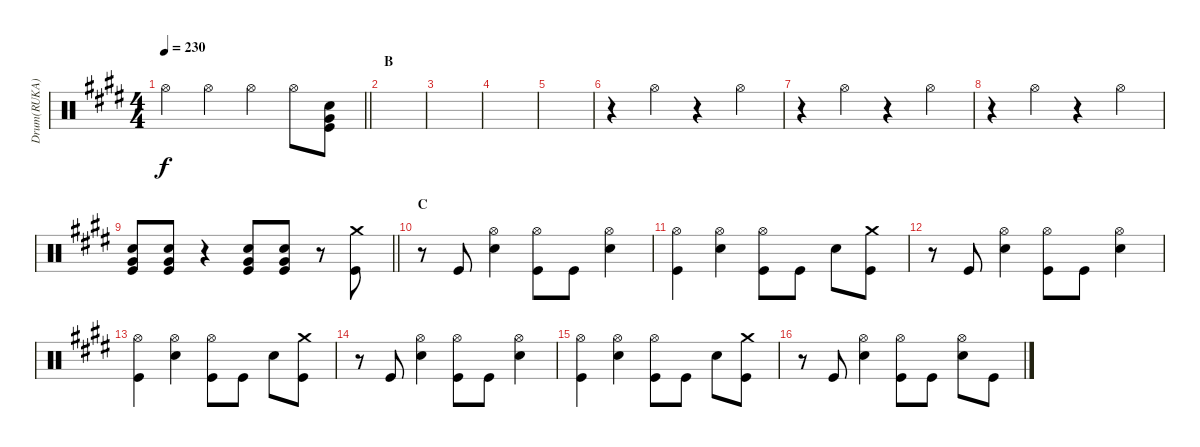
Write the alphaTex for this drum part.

\track ("Drum(RUKA)" "Drum(RUKA)") {instrument percussion}
\staff {score}
\articulation defaults
\ts (4 4)
\tempo 230
\clef neutral
\barLineRight lightlight
\ks e "Hi-Hat (open)".4{dy f} "Hi-Hat (open)".4 "Hi-Hat (open)".4 "Hi-Hat (open)".8
("Electric Snare (hit)" "Very Low Tom (hit)" "Kick (hit)").8 |
\section ("" "B")
|
|
|
|
r.4 "Hi-Hat (open)".4 r.4 "Hi-Hat (open)".4 |
r.4 "Hi-Hat (open)".4 r.4 "Hi-Hat (open)".4 |
r.4 "Hi-Hat (open)".4 r.4 "Hi-Hat (open)".4 |
\barLineRight lightlight
("Electric Snare (hit)" "Very Low Tom (hit)" "Kick (hit)").8 ("Electric Snare (hit)" "Very Low Tom (hit)" "Kick (hit)").8 r.4 ("Electric Snare (hit)" "Very Low Tom (hit)" "Kick (hit)").8 ("Electric Snare (hit)" "Very Low Tom (hit)" "Kick (hit)").8 r.8 ("Crash medium (hit)" "Kick (hit)").8 |
\section ("" "C")
r.8 "Kick (hit)".8 ("Hi-Hat (open)" "Electric Snare (hit)").4 ("Hi-Hat (open)" "Kick (hit)").8 "Kick (hit)".8 ("Hi-Hat (open)" "Electric Snare (hit)").4 |
("Hi-Hat (open)" "Kick (hit)").4 ("Hi-Hat (open)" "Electric Snare (hit)").4 ("Hi-Hat (open)" "Kick (hit)").8 "Kick (hit)".8 "Electric Snare (hit)".8 ("Crash medium (hit)" "Kick (hit)").8 |
r.8 "Kick (hit)".8 ("Hi-Hat (open)" "Electric Snare (hit)").4 ("Hi-Hat (open)" "Kick (hit)").8 "Kick (hit)".8 ("Hi-Hat (open)" "Electric Snare (hit)").4 |
("Hi-Hat (open)" "Kick (hit)").4 ("Hi-Hat (open)" "Electric Snare (hit)").4 ("Hi-Hat (open)" "Kick (hit)").8 "Kick (hit)".8 "Electric Snare (hit)".8 ("Crash medium (hit)" "Kick (hit)").8 |
r.8 "Kick (hit)".8 ("Hi-Hat (open)" "Electric Snare (hit)").4 ("Hi-Hat (open)" "Kick (hit)").8 "Kick (hit)".8 ("Hi-Hat (open)" "Electric Snare (hit)").4 |
("Hi-Hat (open)" "Kick (hit)").4 ("Hi-Hat (open)" "Electric Snare (hit)").4 ("Hi-Hat (open)" "Kick (hit)").8 "Kick (hit)".8 "Electric Snare (hit)".8 ("Crash medium (hit)" "Kick (hit)").8 |
r.8 "Kick (hit)".8 ("Hi-Hat (open)" "Electric Snare (hit)").4 ("Hi-Hat (open)" "Kick (hit)").8 "Kick (hit)".8 ("Hi-Hat (open)" "Electric Snare (hit)").8 "Kick (hit)".8
